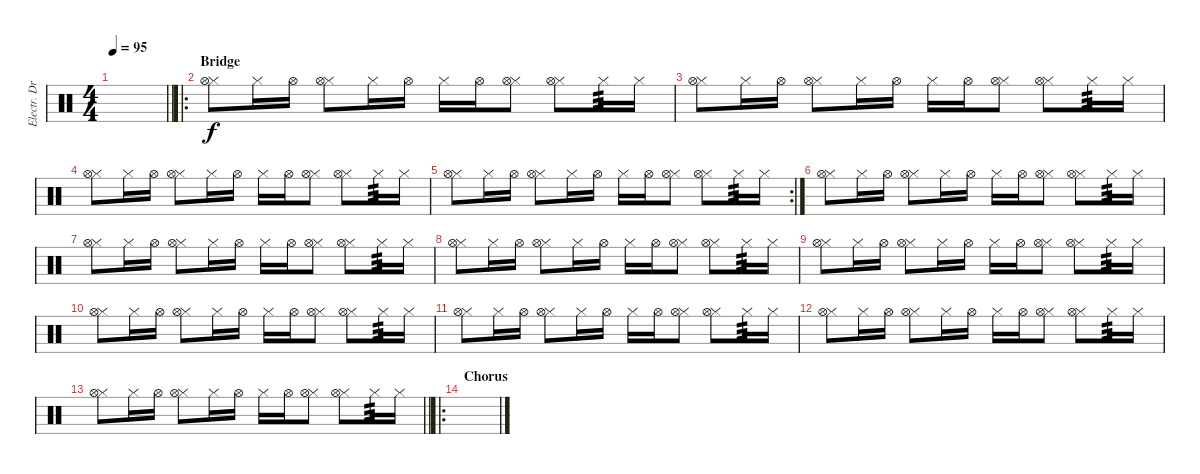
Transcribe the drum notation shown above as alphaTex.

\track ("Electr. Drums" "Electr. Dr") {instrument percussion}
\staff {score}
\articulation defaults
\ts (4 4)
\tempo 95
\clef neutral
\barLineRight lightlight
\ks c
|
\ro
\section ("" "Bridge")
("Hi-Hat (closed)" "Hi-Hat (open)").8 "Hi-Hat (closed)".16 "Hi-Hat (open)".16 ("Hi-Hat (closed)" "Hi-Hat (open)").8 "Hi-Hat (closed)".16 "Hi-Hat (open)".16 "Hi-Hat (closed)".16 "Hi-Hat (open)".16 ("Hi-Hat (closed)" "Hi-Hat (open)").8 ("Hi-Hat (closed)" "Hi-Hat (open)").8 "Hi-Hat (closed)".16{tp 3} "Hi-Hat (closed)".16 |
("Hi-Hat (closed)" "Hi-Hat (open)").8 "Hi-Hat (closed)".16 "Hi-Hat (open)".16 ("Hi-Hat (closed)" "Hi-Hat (open)").8 "Hi-Hat (closed)".16 "Hi-Hat (open)".16 "Hi-Hat (closed)".16 "Hi-Hat (open)".16 ("Hi-Hat (closed)" "Hi-Hat (open)").8 ("Hi-Hat (closed)" "Hi-Hat (open)").8 "Hi-Hat (closed)".16{tp 3} "Hi-Hat (closed)".16 |
("Hi-Hat (closed)" "Hi-Hat (open)").8 "Hi-Hat (closed)".16 "Hi-Hat (open)".16 ("Hi-Hat (closed)" "Hi-Hat (open)").8 "Hi-Hat (closed)".16 "Hi-Hat (open)".16 "Hi-Hat (closed)".16 "Hi-Hat (open)".16 ("Hi-Hat (closed)" "Hi-Hat (open)").8 ("Hi-Hat (closed)" "Hi-Hat (open)").8 "Hi-Hat (closed)".16{tp 3} "Hi-Hat (closed)".16 |
\rc 2
("Hi-Hat (closed)" "Hi-Hat (open)").8 "Hi-Hat (closed)".16 "Hi-Hat (open)".16 ("Hi-Hat (closed)" "Hi-Hat (open)").8 "Hi-Hat (closed)".16 "Hi-Hat (open)".16 "Hi-Hat (closed)".16 "Hi-Hat (open)".16 ("Hi-Hat (closed)" "Hi-Hat (open)").8 ("Hi-Hat (closed)" "Hi-Hat (open)").8 "Hi-Hat (closed)".16{tp 3} "Hi-Hat (closed)".16 |
("Hi-Hat (closed)" "Hi-Hat (open)").8 "Hi-Hat (closed)".16 "Hi-Hat (open)".16 ("Hi-Hat (closed)" "Hi-Hat (open)").8 "Hi-Hat (closed)".16 "Hi-Hat (open)".16 "Hi-Hat (closed)".16 "Hi-Hat (open)".16 ("Hi-Hat (closed)" "Hi-Hat (open)").8 ("Hi-Hat (closed)" "Hi-Hat (open)").8 "Hi-Hat (closed)".16{tp 3} "Hi-Hat (closed)".16 |
("Hi-Hat (closed)" "Hi-Hat (open)").8 "Hi-Hat (closed)".16 "Hi-Hat (open)".16 ("Hi-Hat (closed)" "Hi-Hat (open)").8 "Hi-Hat (closed)".16 "Hi-Hat (open)".16 "Hi-Hat (closed)".16 "Hi-Hat (open)".16 ("Hi-Hat (closed)" "Hi-Hat (open)").8 ("Hi-Hat (closed)" "Hi-Hat (open)").8 "Hi-Hat (closed)".16{tp 3} "Hi-Hat (closed)".16 |
("Hi-Hat (closed)" "Hi-Hat (open)").8 "Hi-Hat (closed)".16 "Hi-Hat (open)".16 ("Hi-Hat (closed)" "Hi-Hat (open)").8 "Hi-Hat (closed)".16 "Hi-Hat (open)".16 "Hi-Hat (closed)".16 "Hi-Hat (open)".16 ("Hi-Hat (closed)" "Hi-Hat (open)").8 ("Hi-Hat (closed)" "Hi-Hat (open)").8 "Hi-Hat (closed)".16{tp 3} "Hi-Hat (closed)".16 |
("Hi-Hat (closed)" "Hi-Hat (open)").8 "Hi-Hat (closed)".16 "Hi-Hat (open)".16 ("Hi-Hat (closed)" "Hi-Hat (open)").8 "Hi-Hat (closed)".16 "Hi-Hat (open)".16 "Hi-Hat (closed)".16 "Hi-Hat (open)".16 ("Hi-Hat (closed)" "Hi-Hat (open)").8 ("Hi-Hat (closed)" "Hi-Hat (open)").8 "Hi-Hat (closed)".16{tp 3} "Hi-Hat (closed)".16 |
("Hi-Hat (closed)" "Hi-Hat (open)").8 "Hi-Hat (closed)".16 "Hi-Hat (open)".16 ("Hi-Hat (closed)" "Hi-Hat (open)").8 "Hi-Hat (closed)".16 "Hi-Hat (open)".16 "Hi-Hat (closed)".16 "Hi-Hat (open)".16 ("Hi-Hat (closed)" "Hi-Hat (open)").8 ("Hi-Hat (closed)" "Hi-Hat (open)").8 "Hi-Hat (closed)".16{tp 3} "Hi-Hat (closed)".16 |
("Hi-Hat (closed)" "Hi-Hat (open)").8 "Hi-Hat (closed)".16 "Hi-Hat (open)".16 ("Hi-Hat (closed)" "Hi-Hat (open)").8 "Hi-Hat (closed)".16 "Hi-Hat (open)".16 "Hi-Hat (closed)".16 "Hi-Hat (open)".16 ("Hi-Hat (closed)" "Hi-Hat (open)").8 ("Hi-Hat (closed)" "Hi-Hat (open)").8 "Hi-Hat (closed)".16{tp 3} "Hi-Hat (closed)".16 |
("Hi-Hat (closed)" "Hi-Hat (open)").8 "Hi-Hat (closed)".16 "Hi-Hat (open)".16 ("Hi-Hat (closed)" "Hi-Hat (open)").8 "Hi-Hat (closed)".16 "Hi-Hat (open)".16 "Hi-Hat (closed)".16 "Hi-Hat (open)".16 ("Hi-Hat (closed)" "Hi-Hat (open)").8 ("Hi-Hat (closed)" "Hi-Hat (open)").8 "Hi-Hat (closed)".16{tp 3} "Hi-Hat (closed)".16 |
\barLineRight lightlight
("Hi-Hat (closed)" "Hi-Hat (open)").8 "Hi-Hat (closed)".16 "Hi-Hat (open)".16 ("Hi-Hat (closed)" "Hi-Hat (open)").8 "Hi-Hat (closed)".16 "Hi-Hat (open)".16 "Hi-Hat (closed)".16 "Hi-Hat (open)".16 ("Hi-Hat (closed)" "Hi-Hat (open)").8 ("Hi-Hat (closed)" "Hi-Hat (open)").8 "Hi-Hat (closed)".16{tp 3} "Hi-Hat (closed)".16 |
\ro
\section ("" "Chorus")
